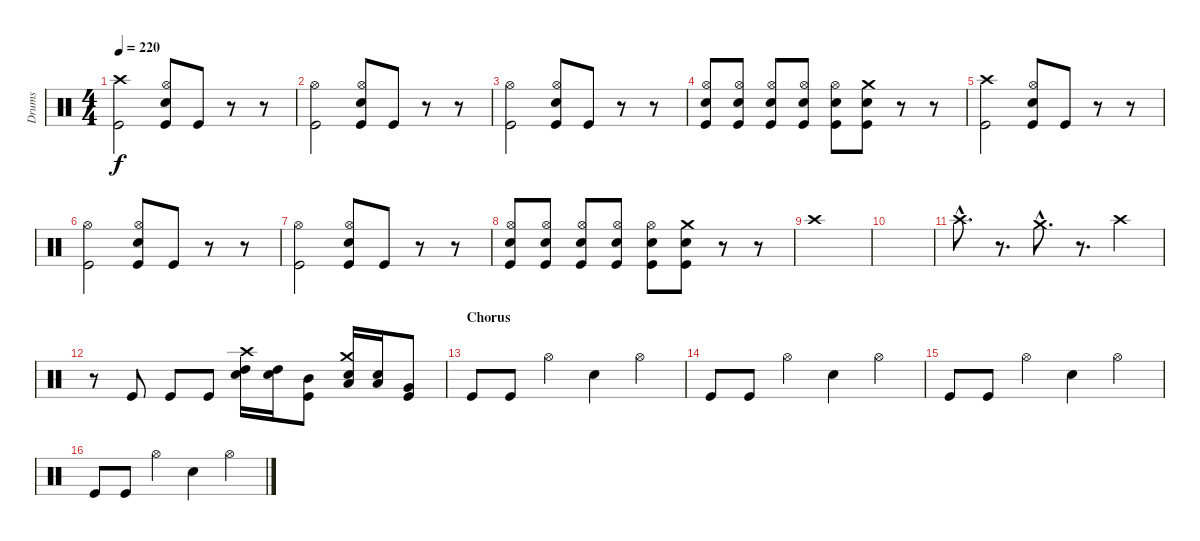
\track ("Drums" "Drums") {instrument percussion}
\staff {score}
\articulation defaults
\ts (4 4)
\tempo 220
\clef neutral
\ks c
("Crash high (hit)" "Kick (hit)").2{dy f} ("Hi-Hat (open)" "Electric Snare (hit)" "Kick (hit)").8 "Kick (hit)".8 r.8 r.8 |
("Hi-Hat (open)" "Kick (hit)").2 ("Hi-Hat (open)" "Electric Snare (hit)" "Kick (hit)").8 "Kick (hit)".8 r.8 r.8 |
("Hi-Hat (open)" "Kick (hit)").2 ("Hi-Hat (open)" "Electric Snare (hit)" "Kick (hit)").8 "Kick (hit)".8 r.8 r.8 |
("Hi-Hat (open)" "Electric Snare (hit)" "Kick (hit)").8 ("Hi-Hat (open)" "Electric Snare (hit)" "Kick (hit)").8 ("Hi-Hat (open)" "Electric Snare (hit)" "Kick (hit)").8 ("Hi-Hat (open)" "Electric Snare (hit)" "Kick (hit)").8 ("Hi-Hat (open)" "Electric Snare (hit)" "Kick (hit)").8 ("Crash medium (hit)" "Electric Snare (hit)" "Kick (hit)").8 r.8 r.8 |
("Crash high (hit)" "Kick (hit)").2 ("Hi-Hat (open)" "Electric Snare (hit)" "Kick (hit)").8 "Kick (hit)".8 r.8 r.8 |
("Hi-Hat (open)" "Kick (hit)").2 ("Hi-Hat (open)" "Electric Snare (hit)" "Kick (hit)").8 "Kick (hit)".8 r.8 r.8 |
("Hi-Hat (open)" "Kick (hit)").2 ("Hi-Hat (open)" "Electric Snare (hit)" "Kick (hit)").8 "Kick (hit)".8 r.8 r.8 |
("Hi-Hat (open)" "Electric Snare (hit)" "Kick (hit)").8 ("Hi-Hat (open)" "Electric Snare (hit)" "Kick (hit)").8 ("Hi-Hat (open)" "Electric Snare (hit)" "Kick (hit)").8 ("Hi-Hat (open)" "Electric Snare (hit)" "Kick (hit)").8 ("Hi-Hat (open)" "Electric Snare (hit)" "Kick (hit)").8 ("Crash medium (hit)" "Electric Snare (hit)" "Kick (hit)").8 r.8 r.8 |
"Crash high (hit)".1 |
|
"Crash high (hit)"{hac}.8{d} r.8{d} "Crash medium (hit)"{hac}.8{d} r.8{d} "Crash high (hit)".4 |
r.8 "Kick (hit)".8 "Kick (hit)".8 "Kick (hit)".8 ("Crash high (hit)" "High Tom (hit)" "Electric Snare (hit)").16 ("High Tom (hit)" "Electric Snare (hit)").16 ("Mid Tom (hit)" "Kick (hit)").8 ("Crash medium (hit)" "Low Tom (hit)" "Electric Snare (hit)").16 ("Low Tom (hit)" "Electric Snare (hit)").16 ("Very Low Tom (hit)" "Kick (hit)").8 |
\section ("" "Chorus")
"Kick (hit)".8 "Kick (hit)".8 "Hi-Hat (open)".4 "Electric Snare (hit)".4 "Hi-Hat (open)".4 |
"Kick (hit)".8 "Kick (hit)".8 "Hi-Hat (open)".4 "Electric Snare (hit)".4 "Hi-Hat (open)".4 |
"Kick (hit)".8 "Kick (hit)".8 "Hi-Hat (open)".4 "Electric Snare (hit)".4 "Hi-Hat (open)".4 |
"Kick (hit)".8 "Kick (hit)".8 "Hi-Hat (open)".4 "Electric Snare (hit)".4 "Hi-Hat (open)".4
